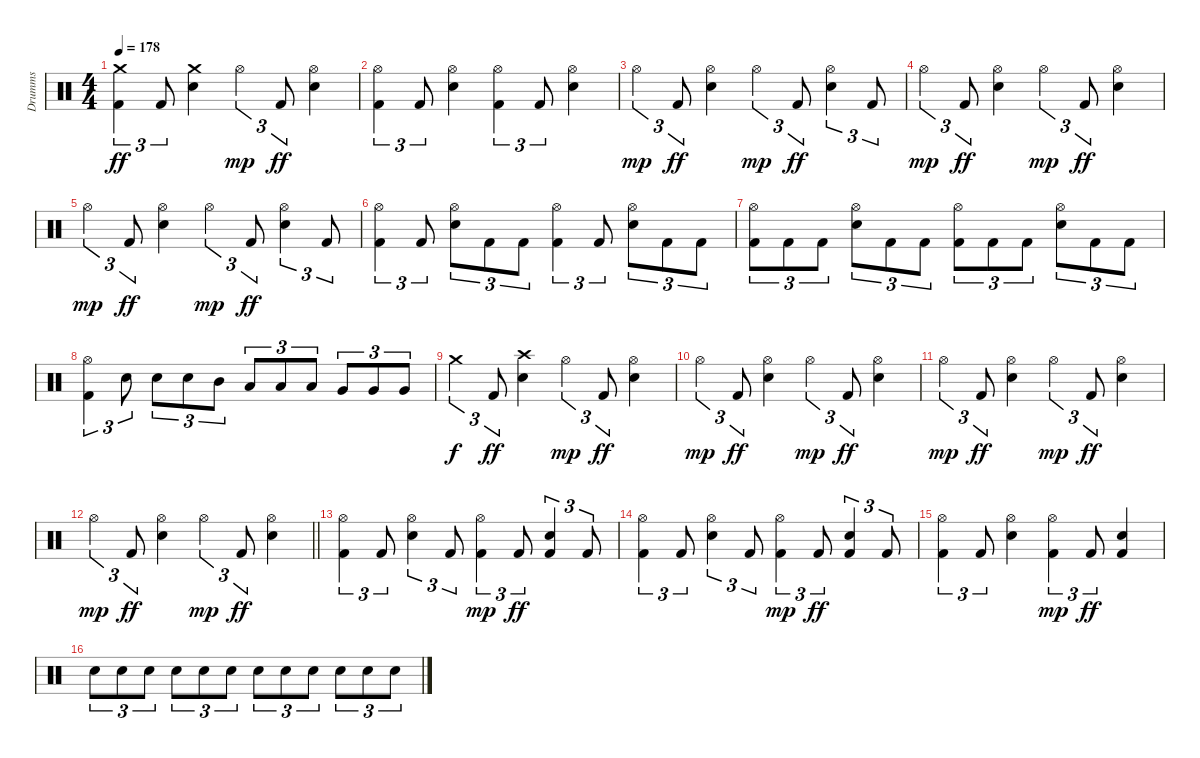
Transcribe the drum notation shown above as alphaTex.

\track ("Drumms" "Drumms") {instrument percussion}
\staff {score}
\articulation defaults
\ts (4 4)
\tempo 178
\clef neutral
\ks c
("Crash medium (hit)" "Kick (hit) 2").4{tu (3 2) dy ff} "Kick (hit) 2".8{tu (3 2)} ("Crash medium (hit)" "Electric Snare (hit)").4 "Hi-Hat (open)".4{tu (3 2) dy mp} "Kick (hit) 2".8{tu (3 2) dy ff} ("Hi-Hat (open)" "Electric Snare (hit)").4 |
("Hi-Hat (open)" "Kick (hit) 2").4{tu (3 2)} "Kick (hit) 2".8{tu (3 2)} ("Hi-Hat (open)" "Electric Snare (hit)").4 ("Hi-Hat (open)" "Kick (hit) 2").4{tu (3 2)} "Kick (hit) 2".8{tu (3 2)} ("Hi-Hat (open)" "Electric Snare (hit)").4 |
"Hi-Hat (open)".4{tu (3 2) dy mp} "Kick (hit) 2".8{tu (3 2) dy ff} ("Hi-Hat (open)" "Electric Snare (hit)").4 "Hi-Hat (open)".4{tu (3 2) dy mp} "Kick (hit) 2".8{tu (3 2) dy ff} ("Hi-Hat (open)" "Electric Snare (hit)").4{tu (3 2)} "Kick (hit) 2".8{tu (3 2)} |
"Hi-Hat (open)".4{tu (3 2) dy mp} "Kick (hit) 2".8{tu (3 2) dy ff} ("Hi-Hat (open)" "Electric Snare (hit)").4 "Hi-Hat (open)".4{tu (3 2) dy mp} "Kick (hit) 2".8{tu (3 2) dy ff} ("Hi-Hat (open)" "Electric Snare (hit)").4 |
"Hi-Hat (open)".4{tu (3 2) dy mp} "Kick (hit) 2".8{tu (3 2) dy ff} ("Hi-Hat (open)" "Electric Snare (hit)").4 "Hi-Hat (open)".4{tu (3 2) dy mp} "Kick (hit) 2".8{tu (3 2) dy ff} ("Hi-Hat (open)" "Electric Snare (hit)").4{tu (3 2)} "Kick (hit) 2".8{tu (3 2)} |
("Hi-Hat (open)" "Kick (hit) 2").4{tu (3 2)} "Kick (hit) 2".8{tu (3 2)} ("Hi-Hat (open)" "Electric Snare (hit)").8{tu (3 2)} "Kick (hit) 2".8{tu (3 2)} "Kick (hit) 2".8{tu (3 2)} ("Hi-Hat (open)" "Kick (hit) 2").4{tu (3 2)} "Kick (hit) 2".8{tu (3 2)} ("Hi-Hat (open)" "Electric Snare (hit)").8{tu (3 2)} "Kick (hit) 2".8{tu (3 2)} "Kick (hit) 2".8{tu (3 2)} |
("Hi-Hat (open)" "Kick (hit) 2").8{tu (3 2)} "Kick (hit) 2".8{tu (3 2)} "Kick (hit) 2".8{tu (3 2)} ("Hi-Hat (open)" "Electric Snare (hit)").8{tu (3 2)} "Kick (hit) 2".8{tu (3 2)} "Kick (hit) 2".8{tu (3 2)} ("Hi-Hat (open)" "Kick (hit) 2").8{tu (3 2)} "Kick (hit) 2".8{tu (3 2)} "Kick (hit) 2".8{tu (3 2)} ("Hi-Hat (open)" "Electric Snare (hit)").8{tu (3 2)} "Kick (hit) 2".8{tu (3 2)} "Kick (hit) 2".8{tu (3 2)} |
("Hi-Hat (open)" "Kick (hit) 2").4{tu (3 2)} "Electric Snare (hit)".8{tu (3 2)} "Electric Snare (hit)".8{tu (3 2)} "Electric Snare (hit)".8{tu (3 2)} "Mid Tom (hit)".8{tu (3 2)} "Low Tom (hit)".8{tu (3 2)} "Low Tom (hit)".8{tu (3 2)} "Low Tom (hit)".8{tu (3 2)} "Very Low Tom (hit)".8{tu (3 2)} "Very Low Tom (hit)".8{tu (3 2)} "Very Low Tom (hit)".8{tu (3 2)} |
"Crash medium (hit)".4{tu (3 2) dy f} "Kick (hit) 2".8{tu (3 2) dy ff} ("Crash high (hit)" "Electric Snare (hit)").4 "Hi-Hat (open)".4{tu (3 2) dy mp} "Kick (hit) 2".8{tu (3 2) dy ff} ("Hi-Hat (open)" "Electric Snare (hit)").4 |
"Hi-Hat (open)".4{tu (3 2) dy mp} "Kick (hit) 2".8{tu (3 2) dy ff} ("Hi-Hat (open)" "Electric Snare (hit)").4 "Hi-Hat (open)".4{tu (3 2) dy mp} "Kick (hit) 2".8{tu (3 2) dy ff} ("Hi-Hat (open)" "Electric Snare (hit)").4 |
"Hi-Hat (open)".4{tu (3 2) dy mp} "Kick (hit) 2".8{tu (3 2) dy ff} ("Hi-Hat (open)" "Electric Snare (hit)").4 "Hi-Hat (open)".4{tu (3 2) dy mp} "Kick (hit) 2".8{tu (3 2) dy ff} ("Hi-Hat (open)" "Electric Snare (hit)").4 |
\barLineRight lightlight "Hi-Hat (open)".4{tu (3 2) dy mp} "Kick (hit) 2".8{tu (3 2) dy ff}
("Hi-Hat (open)" "Electric Snare (hit)").4 "Hi-Hat (open)".4{tu (3 2) dy mp} "Kick (hit) 2".8{tu (3 2) dy ff} ("Hi-Hat (open)" "Electric Snare (hit)").4 |
\section ("" "")
("Hi-Hat (open)" "Kick (hit) 2").4{tu (3 2)} "Kick (hit) 2".8{tu (3 2)} ("Hi-Hat (open)" "Electric Snare (hit)").4{tu (3 2)} "Kick (hit) 2".8{tu (3 2)} ("Hi-Hat (open)" "Kick (hit) 2").4{tu (3 2) dy mp} "Kick (hit) 2".8{tu (3 2) dy ff} ("Kick (hit) 2" "Electric Snare (hit)").4{tu (3 2)} "Kick (hit) 2".8{tu (3 2)} |
("Hi-Hat (open)" "Kick (hit) 2").4{tu (3 2)} "Kick (hit) 2".8{tu (3 2)} ("Hi-Hat (open)" "Electric Snare (hit)").4{tu (3 2)} "Kick (hit) 2".8{tu (3 2)} ("Hi-Hat (open)" "Kick (hit) 2").4{tu (3 2) dy mp} "Kick (hit) 2".8{tu (3 2) dy ff} ("Kick (hit) 2" "Electric Snare (hit)").4{tu (3 2)} "Kick (hit) 2".8{tu (3 2)} |
("Hi-Hat (open)" "Kick (hit) 2").4{tu (3 2)} "Kick (hit) 2".8{tu (3 2)} ("Hi-Hat (open)" "Electric Snare (hit)").4 ("Hi-Hat (open)" "Kick (hit) 2").4{tu (3 2) dy mp} "Kick (hit) 2".8{tu (3 2) dy ff} ("Kick (hit) 2" "Electric Snare (hit)").4 |
"Electric Snare (hit)".8{tu (3 2)} "Electric Snare (hit)".8{tu (3 2)} "Electric Snare (hit)".8{tu (3 2)} "Electric Snare (hit)".8{tu (3 2)} "Electric Snare (hit)".8{tu (3 2)} "Electric Snare (hit)".8{tu (3 2)} "Electric Snare (hit)".8{tu (3 2)} "Electric Snare (hit)".8{tu (3 2)} "Electric Snare (hit)".8{tu (3 2)} "Electric Snare (hit)".8{tu (3 2)} "Electric Snare (hit)".8{tu (3 2)} "Electric Snare (hit)".8{tu (3 2)}
